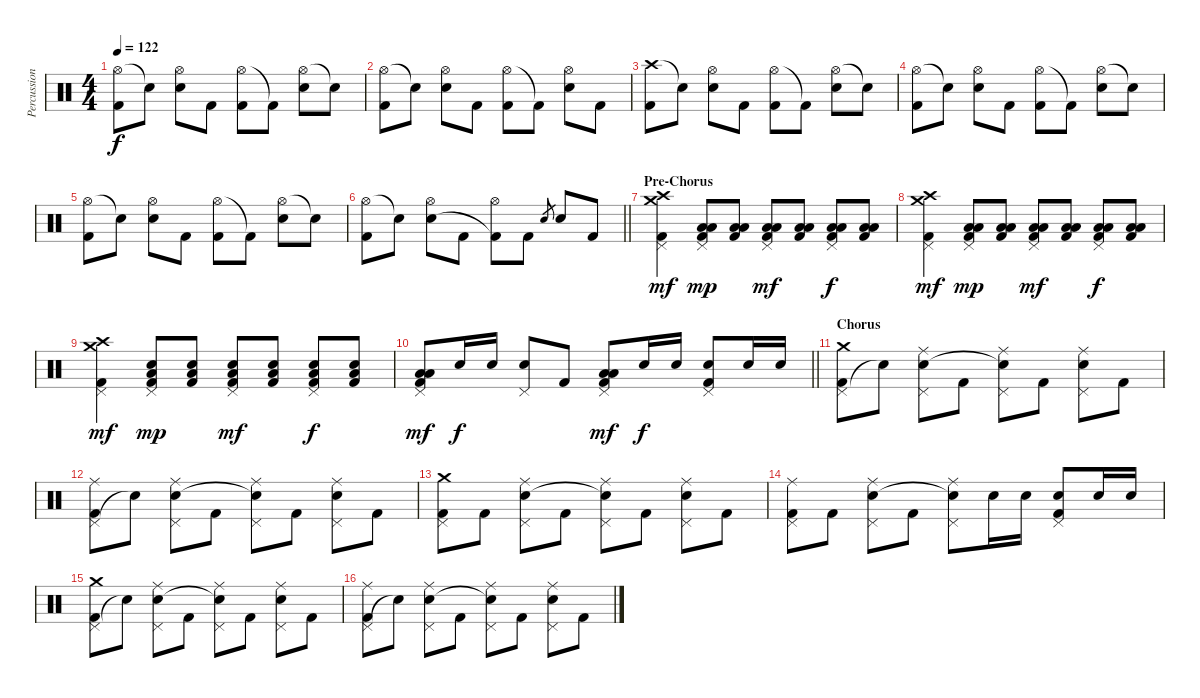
\track ("Percussioni" "Percussion") {instrument percussion}
\staff {score}
\articulation defaults
\ts (4 4)
\tempo 122
\clef neutral
\ks c
("Hi-Hat (open)" "Kick (hit) 2").8{dy f} "Snare (hit)"{t}.8 ("Hi-Hat (open)" "Snare (hit) 2").8 "Kick (hit) 2".8 ("Hi-Hat (open)" "Kick (hit) 2").8 "Kick (hit) 2"{t}.8 ("Hi-Hat (open)" "Snare (hit) 2").8 "Snare (hit)"{t}.8 |
("Hi-Hat (open)" "Kick (hit) 2").8 "Snare (hit)"{t}.8 ("Hi-Hat (open)" "Snare (hit) 2").8 "Kick (hit) 2".8 ("Hi-Hat (open)" "Kick (hit) 2").8 "Kick (hit) 2"{t}.8 ("Hi-Hat (open)" "Snare (hit) 2").8 "Kick (hit) 2".8 |
("Crash high (hit)" "Kick (hit) 2").8 "Snare (hit)"{t}.8 ("Hi-Hat (open)" "Snare (hit) 2").8 "Kick (hit) 2".8 ("Hi-Hat (open)" "Kick (hit) 2").8 "Kick (hit) 2"{t}.8 ("Hi-Hat (open)" "Snare (hit) 2").8 "Snare (hit)"{t}.8 |
("Hi-Hat (open)" "Kick (hit) 2").8 "Snare (hit)"{t}.8 ("Hi-Hat (open)" "Snare (hit) 2").8 "Kick (hit) 2".8 ("Hi-Hat (open)" "Kick (hit) 2").8 "Kick (hit) 2"{t}.8 ("Hi-Hat (open)" "Snare (hit) 2").8 "Snare (hit)"{t}.8 |
("Hi-Hat (open)" "Kick (hit) 2").8 "Snare (hit)"{t}.8 ("Hi-Hat (open)" "Snare (hit) 2").8 "Kick (hit) 2".8 ("Hi-Hat (open)" "Kick (hit) 2").8 "Kick (hit) 2"{t}.8 ("Hi-Hat (open)" "Snare (hit) 2").8 "Snare (hit)"{t}.8 |
\barLineRight lightlight
("Hi-Hat (open)" "Kick (hit) 2").8 "Snare (hit)"{t}.8 ("Hi-Hat (open)" "Snare (hit) 2").8 "Kick (hit) 2".8 ("Hi-Hat (open)" "Kick (hit) 2"{t}).8 "Kick (hit) 2".8 "Snare (hit) 2".8{gr} "Snare (hit) 2".8 "Kick (hit) 2".8 |
\section ("" "Pre-Chorus")
("Pedal Hi-Hat (hit)" "Crash medium (hit)" "Crash high (hit)" "Kick (hit) 2").4{dy mf} ("Pedal Hi-Hat (hit)" "Low Tom (hit)" "Low Floor Tom (hit)" "Kick (hit) 2").8{dy mp} ("Low Tom (hit)" "Low Floor Tom (hit)" "Kick (hit) 2").8 ("Pedal Hi-Hat (hit)" "Low Tom (hit)" "Low Floor Tom (hit)" "Kick (hit) 2").8{dy mf} ("Low Tom (hit)" "Low Floor Tom (hit)" "Kick (hit) 2").8 ("Pedal Hi-Hat (hit)" "Low Tom (hit)" "Low Floor Tom (hit)" "Kick (hit) 2").8{dy f} ("Low Tom (hit)" "Low Floor Tom (hit)" "Kick (hit) 2").8 |
("Pedal Hi-Hat (hit)" "Crash medium (hit)" "Crash high (hit)" "Kick (hit) 2").4{dy mf} ("Pedal Hi-Hat (hit)" "Low Tom (hit)" "Low Floor Tom (hit)" "Kick (hit) 2").8{dy mp} ("Low Tom (hit)" "Low Floor Tom (hit)" "Kick (hit) 2").8 ("Pedal Hi-Hat (hit)" "Low Tom (hit)" "Low Floor Tom (hit)" "Kick (hit) 2").8{dy mf} ("Low Tom (hit)" "Low Floor Tom (hit)" "Kick (hit) 2").8 ("Pedal Hi-Hat (hit)" "Low Tom (hit)" "Low Floor Tom (hit)" "Kick (hit) 2").8{dy f} ("Low Tom (hit)" "Low Floor Tom (hit)" "Kick (hit) 2").8 |
("Pedal Hi-Hat (hit)" "Crash medium (hit)" "Crash high (hit)" "Kick (hit) 2").4{dy mf} ("Pedal Hi-Hat (hit)" "Snare (hit) 2" "Low Floor Tom (hit)" "Kick (hit) 2").8{dy mp} ("Snare (hit) 2" "Low Floor Tom (hit)" "Kick (hit) 2").8 ("Pedal Hi-Hat (hit)" "Snare (hit) 2" "Low Floor Tom (hit)" "Kick (hit) 2").8{dy mf} ("Snare (hit) 2" "Low Floor Tom (hit)" "Kick (hit) 2").8 ("Pedal Hi-Hat (hit)" "Snare (hit) 2" "Low Floor Tom (hit)" "Kick (hit) 2").8{dy f} ("Snare (hit) 2" "Low Floor Tom (hit)" "Kick (hit) 2").8 |
\barLineRight lightlight
("Pedal Hi-Hat (hit)" "Low Tom (hit)" "Low Floor Tom (hit)" "Kick (hit) 2").8{dy mf} "Snare (hit) 2".16{dy f} "Snare (hit) 2".16 ("Pedal Hi-Hat (hit)" "Snare (hit) 2").8 "Kick (hit) 2".8 ("Pedal Hi-Hat (hit)" "Low Tom (hit)" "Low Floor Tom (hit)" "Kick (hit) 2").8{dy mf} "Snare (hit) 2".16{dy f} "Snare (hit) 2".16 ("Pedal Hi-Hat (hit)" "Snare (hit) 2" "Kick (hit) 2").8 "Snare (hit) 2".16 "Snare (hit) 2".16 |
\section ("" "Chorus")
("Pedal Hi-Hat (hit)" "Crash medium (hit)" "Kick (hit) 2").8 "Snare (hit)"{t}.8 ("Pedal Hi-Hat (hit)" "Ride (middle)" "Snare (hit) 2").8 "Kick (hit) 2".8 ("Pedal Hi-Hat (hit)" "Ride (middle)" "Snare (hit)"{t}).8 "Kick (hit) 2".8 ("Pedal Hi-Hat (hit)" "Ride (middle)" "Snare (hit) 2").8 "Kick (hit) 2".8 |
("Pedal Hi-Hat (hit)" "Ride (middle)" "Kick (hit) 2").8 "Snare (hit)"{t}.8 ("Pedal Hi-Hat (hit)" "Ride (middle)" "Snare (hit) 2").8 "Kick (hit) 2".8 ("Pedal Hi-Hat (hit)" "Ride (middle)" "Snare (hit)"{t}).8 "Kick (hit) 2".8 ("Pedal Hi-Hat (hit)" "Ride (middle)" "Snare (hit) 2").8 "Kick (hit) 2".8 |
("Pedal Hi-Hat (hit)" "Crash medium (hit)" "Kick (hit) 2").8 "Kick (hit) 2".8 ("Pedal Hi-Hat (hit)" "Ride (middle)" "Snare (hit) 2").8 "Kick (hit) 2".8 ("Pedal Hi-Hat (hit)" "Ride (middle)" "Snare (hit)"{t}).8 "Kick (hit) 2".8 ("Pedal Hi-Hat (hit)" "Ride (middle)" "Snare (hit) 2").8 "Kick (hit) 2".8 |
("Pedal Hi-Hat (hit)" "Ride (middle)" "Kick (hit) 2").8 "Kick (hit) 2".8 ("Pedal Hi-Hat (hit)" "Ride (middle)" "Snare (hit) 2").8 "Kick (hit) 2".8 ("Pedal Hi-Hat (hit)" "Ride (middle)" "Snare (hit)"{t}).8 "Snare (hit) 2".16 "Snare (hit) 2".16 ("Pedal Hi-Hat (hit)" "Snare (hit) 2" "Kick (hit) 2").8 "Snare (hit) 2".16 "Snare (hit) 2".16 |
("Pedal Hi-Hat (hit)" "Crash medium (hit)" "Kick (hit) 2").8 "Snare (hit)"{t}.8 ("Pedal Hi-Hat (hit)" "Ride (middle)" "Snare (hit) 2").8 "Kick (hit) 2".8 ("Pedal Hi-Hat (hit)" "Ride (middle)" "Snare (hit)"{t}).8 "Kick (hit) 2".8 ("Pedal Hi-Hat (hit)" "Ride (middle)" "Snare (hit) 2").8 "Kick (hit) 2".8 |
("Pedal Hi-Hat (hit)" "Ride (middle)" "Kick (hit) 2").8 "Snare (hit)"{t}.8 ("Pedal Hi-Hat (hit)" "Ride (middle)" "Snare (hit) 2").8 "Kick (hit) 2".8 ("Pedal Hi-Hat (hit)" "Ride (middle)" "Snare (hit)"{t}).8 "Kick (hit) 2".8 ("Pedal Hi-Hat (hit)" "Ride (middle)" "Snare (hit) 2").8 "Kick (hit) 2".8
